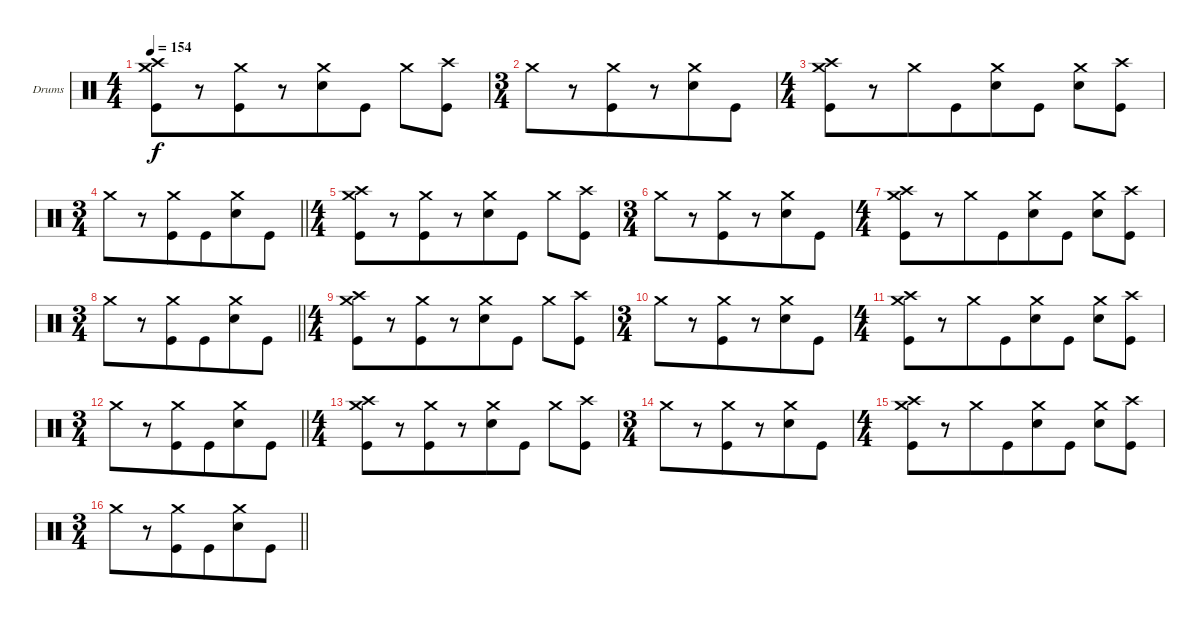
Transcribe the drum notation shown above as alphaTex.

\bracketExtendMode groupsimilarinstruments
\firstSystemTrackNameOrientation horizontal
\otherSystemsTrackNameOrientation horizontal
\track ("Navene Koperweis" "Drums") {instrument percussion}
\staff {score}
\articulation defaults
\ts (4 4)
\beaming (8 6 4)
\tempo 154
\clef neutral
\ks c
("Crash medium (hit)" "Crash high (hit)" "Kick (hit)").8{dy f} r.8 ("Crash medium (hit)" "Kick (hit)").8 r.8 ("Crash medium (hit)" "Snare (hit) 2").8 "Kick (hit)".8 "Crash medium (hit)".8 ("Crash high (hit)" "Kick (hit)").8 |
\ts (3 4)
\beaming (8 6 4)
"Crash medium (hit)".8 r.8 ("Crash medium (hit)" "Kick (hit)").8 r.8 ("Crash medium (hit)" "Snare (hit) 2").8 "Kick (hit)".8 |
\ts (4 4)
\beaming (8 6 4)
("Crash medium (hit)" "Crash high (hit)" "Kick (hit)").8 r.8 "Crash medium (hit)".8 "Kick (hit)".8 ("Crash medium (hit)" "Snare (hit) 2").8 "Kick (hit)".8 ("Crash medium (hit)" "Snare (hit) 2").8 ("Crash high (hit)" "Kick (hit)").8 |
\ts (3 4)
\beaming (8 6 4)
\barLineRight lightlight "Crash medium (hit)".8
r.8 ("Crash medium (hit)" "Kick (hit)").8 "Kick (hit)".8 ("Crash medium (hit)" "Snare (hit) 2").8 "Kick (hit)".8 |
\ts (4 4)
\beaming (8 6 4)
("Crash medium (hit)" "Crash high (hit)" "Kick (hit)").8 r.8 ("Crash medium (hit)" "Kick (hit)").8 r.8 ("Crash medium (hit)" "Snare (hit) 2").8 "Kick (hit)".8 "Crash medium (hit)".8 ("Crash high (hit)" "Kick (hit)").8 |
\ts (3 4)
\beaming (8 6 4)
"Crash medium (hit)".8 r.8 ("Crash medium (hit)" "Kick (hit)").8 r.8 ("Crash medium (hit)" "Snare (hit) 2").8 "Kick (hit)".8 |
\ts (4 4)
\beaming (8 6 4)
("Crash medium (hit)" "Crash high (hit)" "Kick (hit)").8 r.8 "Crash medium (hit)".8 "Kick (hit)".8 ("Crash medium (hit)" "Snare (hit) 2").8 "Kick (hit)".8 ("Crash medium (hit)" "Snare (hit) 2").8 ("Crash high (hit)" "Kick (hit)").8 |
\ts (3 4)
\beaming (8 6 4)
\barLineRight lightlight "Crash medium (hit)".8
r.8 ("Crash medium (hit)" "Kick (hit)").8 "Kick (hit)".8 ("Crash medium (hit)" "Snare (hit) 2").8 "Kick (hit)".8 |
\ts (4 4)
\beaming (8 6 4)
("Crash medium (hit)" "Crash high (hit)" "Kick (hit)").8 r.8 ("Crash medium (hit)" "Kick (hit)").8 r.8 ("Crash medium (hit)" "Snare (hit) 2").8 "Kick (hit)".8 "Crash medium (hit)".8 ("Crash high (hit)" "Kick (hit)").8 |
\ts (3 4)
\beaming (8 6 4)
"Crash medium (hit)".8 r.8 ("Crash medium (hit)" "Kick (hit)").8 r.8 ("Crash medium (hit)" "Snare (hit) 2").8 "Kick (hit)".8 |
\ts (4 4)
\beaming (8 6 4)
("Crash medium (hit)" "Crash high (hit)" "Kick (hit)").8 r.8 "Crash medium (hit)".8 "Kick (hit)".8 ("Crash medium (hit)" "Snare (hit) 2").8 "Kick (hit)".8 ("Crash medium (hit)" "Snare (hit) 2").8 ("Crash high (hit)" "Kick (hit)").8 |
\ts (3 4)
\beaming (8 6 4)
\barLineRight lightlight "Crash medium (hit)".8
r.8 ("Crash medium (hit)" "Kick (hit)").8 "Kick (hit)".8 ("Crash medium (hit)" "Snare (hit) 2").8 "Kick (hit)".8 |
\ts (4 4)
\beaming (8 6 4)
("Crash medium (hit)" "Crash high (hit)" "Kick (hit)").8 r.8 ("Crash medium (hit)" "Kick (hit)").8 r.8 ("Crash medium (hit)" "Snare (hit) 2").8 "Kick (hit)".8 "Crash medium (hit)".8 ("Crash high (hit)" "Kick (hit)").8 |
\ts (3 4)
\beaming (8 6 4)
"Crash medium (hit)".8 r.8 ("Crash medium (hit)" "Kick (hit)").8 r.8 ("Crash medium (hit)" "Snare (hit) 2").8 "Kick (hit)".8 |
\ts (4 4)
\beaming (8 6 4)
("Crash medium (hit)" "Crash high (hit)" "Kick (hit)").8 r.8 "Crash medium (hit)".8 "Kick (hit)".8 ("Crash medium (hit)" "Snare (hit) 2").8 "Kick (hit)".8 ("Crash medium (hit)" "Snare (hit) 2").8 ("Crash high (hit)" "Kick (hit)").8 |
\ts (3 4)
\beaming (8 6 4)
\barLineRight lightlight "Crash medium (hit)".8
r.8 ("Crash medium (hit)" "Kick (hit)").8 "Kick (hit)".8 ("Crash medium (hit)" "Snare (hit) 2").8 "Kick (hit)".8
